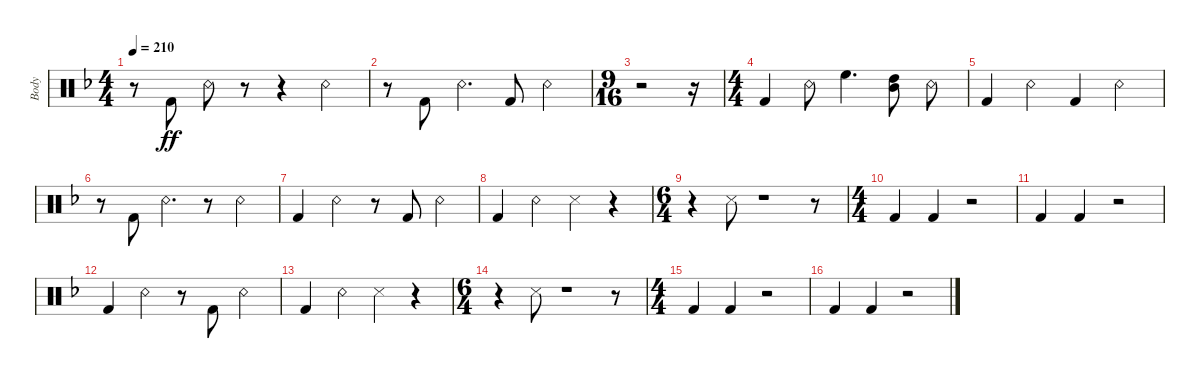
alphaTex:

\defaultSystemsLayout 2
\bracketExtendMode groupsimilarinstruments
\otherSystemsTrackNameOrientation horizontal
\track ("Body" "Body") {instrument percussion}
\staff {score}
\articulation defaults
\ts (4 4)
\scale
1.04787
\tempo 210
\accidentals auto
\clef neutral
\ottava regular
\simile none
\scale
0.333333
\ks dminor
r.8{dy ff beam Down} "Kick (hit) 2"{acc forcenatural}.8{beam Up} "Snare (rim shot)"{acc forcenatural}.8{beam Down} r.8{beam Down} r.4{beam Down} "Snare (rim shot)"{acc forcenatural}.4{beam Down} |
\scale
0.952125
\scale
0.333333 r.8{beam Down} "Kick (hit) 2"{acc forcenatural}.8{beam Up} "Snare (rim shot)"{acc forcenatural}.4{d beam Down} "Kick (hit) 2"{acc forcenatural}.8{beam Up} "Snare (rim shot)"{acc forcenatural}.4{beam Down} |
\ts (9 16)
\beaming (8 4)
\scale
1.0635
\scale
0.333333 r.2{beam Down} r.16{beam Down} |
\ts (4 4)
\beaming (8 4)
\scale
0.9365
\scale
0.333333 "Kick (hit) 2"{acc forcenatural}.4{beam Up} "Snare (rim shot)"{acc forcenatural}.8{beam Down} "High Floor Tom (hit)"{acc forcenatural}.4{d beam Down} ("High Tom (hit)"{acc forcenatural} "Mid Tom (hit)"{acc forcenatural}).8{beam Down} "Snare (rim shot)"{acc forcenatural}.8{beam Down} |
\scale
1.04787
\scale
0.333333 "Kick (hit) 2"{acc forcenatural}.4{beam Up} "Snare (rim shot)"{acc forcenatural}.4{beam Down} "Kick (hit) 2"{acc forcenatural}.4{beam Up} "Snare (rim shot)"{acc forcenatural}.4{beam Down} |
\scale
0.952125
\scale
0.333333 r.8{beam Down} "Kick (hit) 2"{acc forcenatural}.8{beam Up} "Snare (rim shot)"{acc forcenatural}.4{d beam Down} r.8{beam Down} "Snare (rim shot)"{acc forcenatural}.4{beam Down} |
\scale
1.04787
\scale
0.333333 "Kick (hit) 2"{acc forcenatural}.4{beam Up} "Snare (rim shot)"{acc forcenatural}.4{beam Down} r.8{beam Down} "Kick (hit) 2"{acc forcenatural}.8{beam Up} "Snare (rim shot)"{acc forcenatural}.4{beam Down} |
\scale
0.952125
\scale
0.333333 "Kick (hit) 2"{acc forcenatural}.4{beam Up} "Snare (rim shot)"{acc forcenatural}.4{beam Down} "Snare (side stick) 3"{acc forcenatural}.4{beam Down} r.4{beam Down} |
\ts (6 4)
\beaming (8 4 4 4)
\scale
1.04679
\scale
0.333333 r.4{beam Down} "Snare (side stick) 3"{acc forcenatural}.8{beam Down} r.1{beam Down} r.8{beam Down} |
\ts (4 4)
\beaming (8 4 4 4)
\scale
0.953211
\scale
0.333333 "Kick (hit) 2"{acc forcenatural}.4{beam Up} "Kick (hit) 2"{acc forcenatural}.4{beam Up} r.2{beam Up} |
\scale
1.03751
\scale
0.333333 "Kick (hit) 2"{acc forcenatural}.4{beam Up} "Kick (hit) 2"{acc forcenatural}.4{beam Up} r.2{beam Up} |
\scale
0.962487 "Kick (hit) 2"{acc forcenatural}.4{beam Up} "Snare (rim shot)"{acc forcenatural}.4{beam Down} r.8{beam Down} "Kick (hit) 2"{acc forcenatural}.8{beam Up} "Snare (rim shot)"{acc forcenatural}.4{beam Down} |
\scale
1.02824 "Kick (hit) 2"{acc forcenatural}.4{beam Up} "Snare (rim shot)"{acc forcenatural}.4{beam Down} "Snare (side stick) 3"{acc forcenatural}.4{beam Down} r.4{beam Down} |
\ts (6 4)
\beaming (8 4 4 4)
\scale
0.971759 r.4{beam Down} "Snare (side stick) 3"{acc forcenatural}.8{beam Down} r.1{beam Down} r.8{beam Down} |
\ts (4 4)
\beaming (8 4 4 4)
\scale
1.07787 "Kick (hit) 2"{acc forcenatural}.4{beam Up} "Kick (hit) 2"{acc forcenatural}.4{beam Up} r.2{beam Up} |
\scale
0.922129 "Kick (hit) 2"{acc forcenatural}.4{beam Up} "Kick (hit) 2"{acc forcenatural}.4{beam Up} r.2{beam Up}
